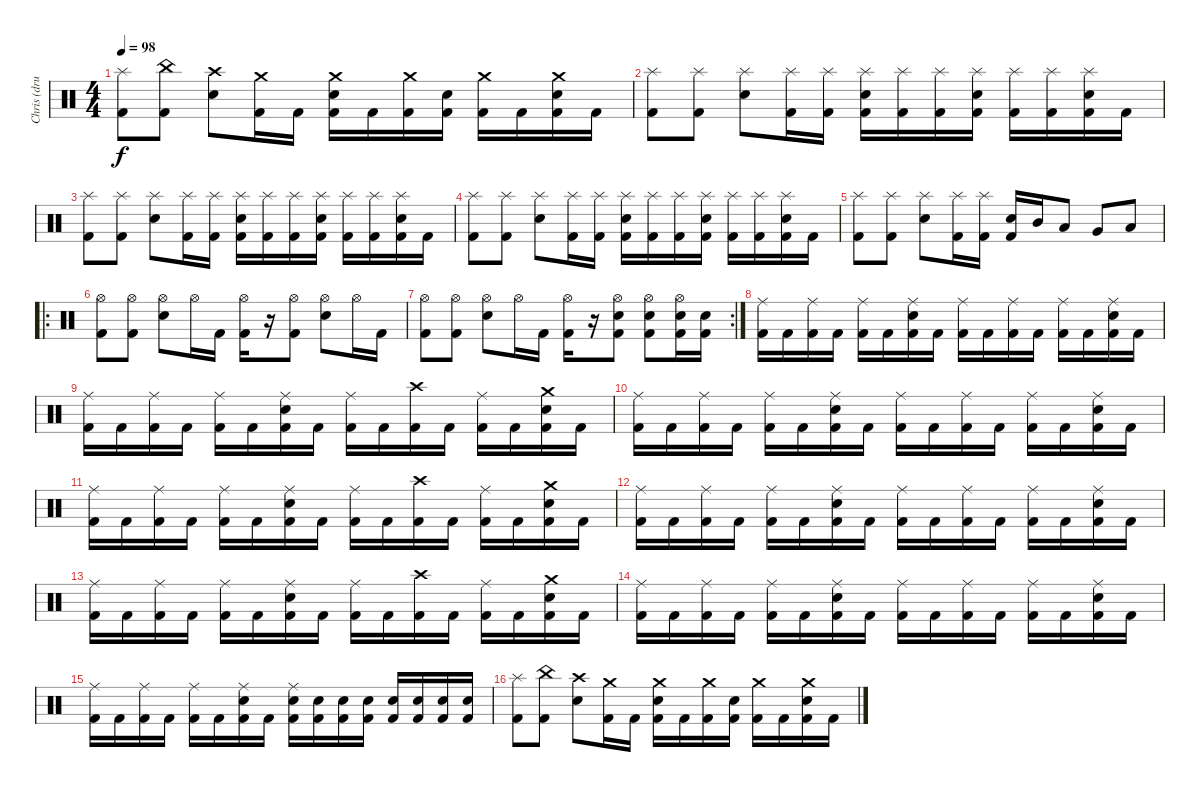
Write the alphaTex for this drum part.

\track ("Chris (drums)" "Chris (dru") {instrument percussion}
\staff {score}
\articulation defaults
\ts (4 4)
\tempo 98
\clef neutral
\ks c
("Splash (hit)" "Kick (hit) 2").8{dy f} ("China (hit)" "Kick (hit) 2").8 ("Crash high (hit)" "Electric Snare (hit)").8 ("Crash medium (hit)" "Kick (hit) 2").16 "Kick (hit) 2".16 ("Crash medium (hit)" "Electric Snare (hit)" "Kick (hit) 2").16 "Kick (hit) 2".16 ("Crash medium (hit)" "Kick (hit) 2").16 ("Electric Snare (hit)" "Kick (hit) 2").16 ("Crash medium (hit)" "Kick (hit) 2").16 "Kick (hit) 2".16 ("Crash medium (hit)" "Electric Snare (hit)" "Kick (hit) 2").16 "Kick (hit) 2".16 |
("Splash (hit)" "Kick (hit) 2").8 ("Splash (hit)" "Kick (hit) 2").8 ("Splash (hit)" "Electric Snare (hit)").8 ("Splash (hit)" "Kick (hit) 2").16 ("Splash (hit)" "Kick (hit) 2").16 ("Splash (hit)" "Electric Snare (hit)" "Kick (hit) 2").16 ("Splash (hit)" "Kick (hit) 2").16 ("Splash (hit)" "Kick (hit) 2").16 ("Splash (hit)" "Electric Snare (hit)" "Kick (hit) 2").16 ("Splash (hit)" "Kick (hit) 2").16 ("Splash (hit)" "Kick (hit) 2").16 ("Splash (hit)" "Electric Snare (hit)" "Kick (hit) 2").16 "Kick (hit) 2".16 |
("Splash (hit)" "Kick (hit) 2").8 ("Splash (hit)" "Kick (hit) 2").8 ("Splash (hit)" "Electric Snare (hit)").8 ("Splash (hit)" "Kick (hit) 2").16 ("Splash (hit)" "Kick (hit) 2").16 ("Splash (hit)" "Electric Snare (hit)" "Kick (hit) 2").16 ("Splash (hit)" "Kick (hit) 2").16 ("Splash (hit)" "Kick (hit) 2").16 ("Splash (hit)" "Electric Snare (hit)" "Kick (hit) 2").16 ("Splash (hit)" "Kick (hit) 2").16 ("Splash (hit)" "Kick (hit) 2").16 ("Splash (hit)" "Electric Snare (hit)" "Kick (hit) 2").16 "Kick (hit) 2".16 |
("Splash (hit)" "Kick (hit) 2").8 ("Splash (hit)" "Kick (hit) 2").8 ("Splash (hit)" "Electric Snare (hit)").8 ("Splash (hit)" "Kick (hit) 2").16 ("Splash (hit)" "Kick (hit) 2").16 ("Splash (hit)" "Electric Snare (hit)" "Kick (hit) 2").16 ("Splash (hit)" "Kick (hit) 2").16 ("Splash (hit)" "Kick (hit) 2").16 ("Splash (hit)" "Electric Snare (hit)" "Kick (hit) 2").16 ("Splash (hit)" "Kick (hit) 2").16 ("Splash (hit)" "Kick (hit) 2").16 ("Splash (hit)" "Electric Snare (hit)" "Kick (hit) 2").16 "Kick (hit) 2".16 |
("Splash (hit)" "Kick (hit) 2").8 ("Splash (hit)" "Kick (hit) 2").8 ("Splash (hit)" "Electric Snare (hit)").8 ("Splash (hit)" "Kick (hit) 2").16 ("Splash (hit)" "Kick (hit) 2").16 ("Electric Snare (hit)" "Kick (hit) 2").16 "Mid Tom (hit)".16 "Low Tom (hit)".8 "Very Low Tom (hit)".8 "Low Floor Tom (hit)".8 |
\ro
("Hi-Hat (open)" "Kick (hit) 2").8 ("Hi-Hat (open)" "Kick (hit) 2").8 ("Hi-Hat (open)" "Electric Snare (hit)").8 "Hi-Hat (open)".16 "Kick (hit) 2".16 ("Hi-Hat (open)" "Kick (hit) 2").16 r.16 ("Hi-Hat (open)" "Kick (hit) 2").8 ("Hi-Hat (open)" "Electric Snare (hit)").8 "Hi-Hat (open)".16 "Kick (hit) 2".16 |
\rc 2
("Hi-Hat (open)" "Kick (hit) 2").8 ("Hi-Hat (open)" "Kick (hit) 2").8 ("Hi-Hat (open)" "Electric Snare (hit)").8 "Hi-Hat (open)".16 "Kick (hit) 2".16 ("Hi-Hat (open)" "Kick (hit) 2").16 r.16 ("Hi-Hat (open)" "Electric Snare (hit)" "Kick (hit) 2").8 ("Hi-Hat (open)" "Electric Snare (hit)" "Kick (hit) 2").8 ("Hi-Hat (open)" "Electric Snare (hit)" "Kick (hit) 2").16 ("Electric Snare (hit)" "Kick (hit) 2").16 |
("Ride (middle)" "Kick (hit) 2").16 "Kick (hit) 2".16 ("Ride (middle)" "Kick (hit) 2").16 "Kick (hit) 2".16 ("Ride (middle)" "Kick (hit) 2").16 "Kick (hit) 2".16 ("Ride (middle)" "Electric Snare (hit)" "Kick (hit) 2").16 "Kick (hit) 2".16 ("Ride (middle)" "Kick (hit) 2").16 "Kick (hit) 2".16 ("Ride (middle)" "Kick (hit) 2").16 "Kick (hit) 2".16 ("Ride (middle)" "Kick (hit) 2").16 "Kick (hit) 2".16 ("Ride (middle)" "Electric Snare (hit)" "Kick (hit) 2").16 "Kick (hit) 2".16 |
("Ride (middle)" "Kick (hit) 2").16 "Kick (hit) 2".16 ("Ride (middle)" "Kick (hit) 2").16 "Kick (hit) 2".16 ("Ride (middle)" "Kick (hit) 2").16 "Kick (hit) 2".16 ("Ride (middle)" "Electric Snare (hit)" "Kick (hit) 2").16 "Kick (hit) 2".16 ("Ride (middle)" "Kick (hit) 2").16 "Kick (hit) 2".16 ("Crash high (hit)" "Kick (hit) 2").16 "Kick (hit) 2".16 ("Ride (middle)" "Kick (hit) 2").16 "Kick (hit) 2".16 ("Crash medium (hit)" "Electric Snare (hit)" "Kick (hit) 2").16 "Kick (hit) 2".16 |
("Ride (middle)" "Kick (hit) 2").16 "Kick (hit) 2".16 ("Ride (middle)" "Kick (hit) 2").16 "Kick (hit) 2".16 ("Ride (middle)" "Kick (hit) 2").16 "Kick (hit) 2".16 ("Ride (middle)" "Electric Snare (hit)" "Kick (hit) 2").16 "Kick (hit) 2".16 ("Ride (middle)" "Kick (hit) 2").16 "Kick (hit) 2".16 ("Ride (middle)" "Kick (hit) 2").16 "Kick (hit) 2".16 ("Ride (middle)" "Kick (hit) 2").16 "Kick (hit) 2".16 ("Ride (middle)" "Electric Snare (hit)" "Kick (hit) 2").16 "Kick (hit) 2".16 |
("Ride (middle)" "Kick (hit) 2").16 "Kick (hit) 2".16 ("Ride (middle)" "Kick (hit) 2").16 "Kick (hit) 2".16 ("Ride (middle)" "Kick (hit) 2").16 "Kick (hit) 2".16 ("Ride (middle)" "Electric Snare (hit)" "Kick (hit) 2").16 "Kick (hit) 2".16 ("Ride (middle)" "Kick (hit) 2").16 "Kick (hit) 2".16 ("Crash high (hit)" "Kick (hit) 2").16 "Kick (hit) 2".16 ("Ride (middle)" "Kick (hit) 2").16 "Kick (hit) 2".16 ("Crash medium (hit)" "Electric Snare (hit)" "Kick (hit) 2").16 "Kick (hit) 2".16 |
("Ride (middle)" "Kick (hit) 2").16 "Kick (hit) 2".16 ("Ride (middle)" "Kick (hit) 2").16 "Kick (hit) 2".16 ("Ride (middle)" "Kick (hit) 2").16 "Kick (hit) 2".16 ("Ride (middle)" "Electric Snare (hit)" "Kick (hit) 2").16 "Kick (hit) 2".16 ("Ride (middle)" "Kick (hit) 2").16 "Kick (hit) 2".16 ("Ride (middle)" "Kick (hit) 2").16 "Kick (hit) 2".16 ("Ride (middle)" "Kick (hit) 2").16 "Kick (hit) 2".16 ("Ride (middle)" "Electric Snare (hit)" "Kick (hit) 2").16 "Kick (hit) 2".16 |
("Ride (middle)" "Kick (hit) 2").16 "Kick (hit) 2".16 ("Ride (middle)" "Kick (hit) 2").16 "Kick (hit) 2".16 ("Ride (middle)" "Kick (hit) 2").16 "Kick (hit) 2".16 ("Ride (middle)" "Electric Snare (hit)" "Kick (hit) 2").16 "Kick (hit) 2".16 ("Ride (middle)" "Kick (hit) 2").16 "Kick (hit) 2".16 ("Crash high (hit)" "Kick (hit) 2").16 "Kick (hit) 2".16 ("Ride (middle)" "Kick (hit) 2").16 "Kick (hit) 2".16 ("Crash medium (hit)" "Electric Snare (hit)" "Kick (hit) 2").16 "Kick (hit) 2".16 |
("Ride (middle)" "Kick (hit) 2").16 "Kick (hit) 2".16 ("Ride (middle)" "Kick (hit) 2").16 "Kick (hit) 2".16 ("Ride (middle)" "Kick (hit) 2").16 "Kick (hit) 2".16 ("Ride (middle)" "Electric Snare (hit)" "Kick (hit) 2").16 "Kick (hit) 2".16 ("Ride (middle)" "Kick (hit) 2").16 "Kick (hit) 2".16 ("Ride (middle)" "Kick (hit) 2").16 "Kick (hit) 2".16 ("Ride (middle)" "Kick (hit) 2").16 "Kick (hit) 2".16 ("Ride (middle)" "Electric Snare (hit)" "Kick (hit) 2").16 "Kick (hit) 2".16 |
("Ride (middle)" "Kick (hit) 2").16 "Kick (hit) 2".16 ("Ride (middle)" "Kick (hit) 2").16 "Kick (hit) 2".16 ("Ride (middle)" "Kick (hit) 2").16 "Kick (hit) 2".16 ("Ride (middle)" "Electric Snare (hit)" "Kick (hit) 2").16 "Kick (hit) 2".16 ("Ride (middle)" "Electric Snare (hit)" "Kick (hit) 2").16 ("Electric Snare (hit)" "Kick (hit) 2").16 ("Electric Snare (hit)" "Kick (hit) 2").16 ("Electric Snare (hit)" "Kick (hit) 2").16 ("Electric Snare (hit)" "Kick (hit) 2").16 ("Electric Snare (hit)" "Kick (hit) 2").16 ("Electric Snare (hit)" "Kick (hit) 2").16 ("Electric Snare (hit)" "Kick (hit) 2").16 |
("Splash (hit)" "Kick (hit) 2").8 ("China (hit)" "Kick (hit) 2").8 ("Crash high (hit)" "Electric Snare (hit)").8 ("Crash medium (hit)" "Kick (hit) 2").16 "Kick (hit) 2".16 ("Crash medium (hit)" "Electric Snare (hit)" "Kick (hit) 2").16 "Kick (hit) 2".16 ("Crash medium (hit)" "Kick (hit) 2").16 ("Electric Snare (hit)" "Kick (hit) 2").16 ("Crash medium (hit)" "Kick (hit) 2").16 "Kick (hit) 2".16 ("Crash medium (hit)" "Electric Snare (hit)" "Kick (hit) 2").16 "Kick (hit) 2".16
